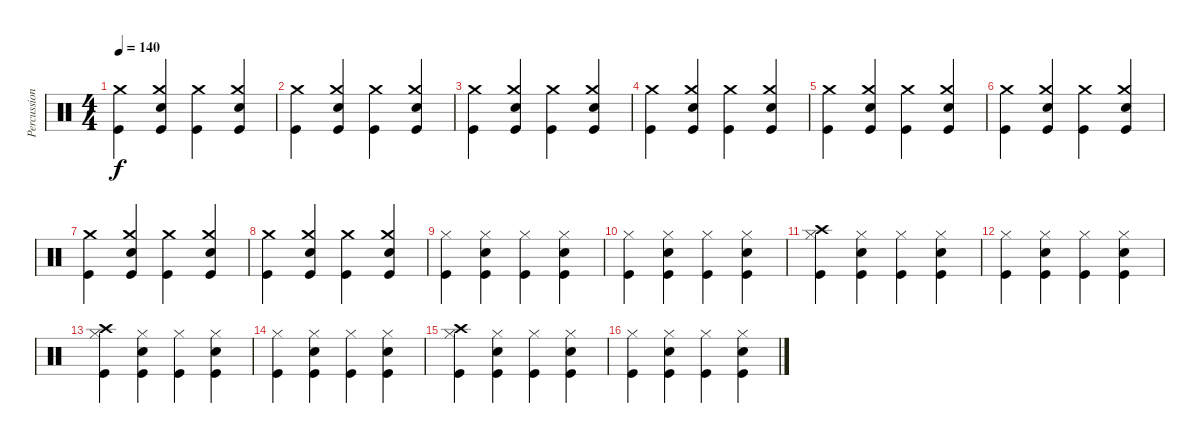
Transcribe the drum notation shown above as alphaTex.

\track ("Percussion" "Percussion") {instrument percussion}
\staff {score}
\articulation defaults
\ts (4 4)
\tempo 140
\clef neutral
\ks c
("Kick (hit)" "Crash medium (hit)").4{dy f} ("Kick (hit)" "Electric Snare (hit)" "Crash medium (hit)").4 ("Kick (hit)" "Crash medium (hit)").4 ("Kick (hit)" "Electric Snare (hit)" "Crash medium (hit)").4 |
("Kick (hit)" "Crash medium (hit)").4 ("Kick (hit)" "Electric Snare (hit)" "Crash medium (hit)").4 ("Kick (hit)" "Crash medium (hit)").4 ("Kick (hit)" "Electric Snare (hit)" "Crash medium (hit)").4 |
("Kick (hit)" "Crash medium (hit)").4 ("Kick (hit)" "Electric Snare (hit)" "Crash medium (hit)").4 ("Kick (hit)" "Crash medium (hit)").4 ("Kick (hit)" "Electric Snare (hit)" "Crash medium (hit)").4 |
("Kick (hit)" "Crash medium (hit)").4 ("Kick (hit)" "Electric Snare (hit)" "Crash medium (hit)").4 ("Kick (hit)" "Crash medium (hit)").4 ("Kick (hit)" "Electric Snare (hit)" "Crash medium (hit)").4 |
("Kick (hit)" "Crash medium (hit)").4 ("Kick (hit)" "Electric Snare (hit)" "Crash medium (hit)").4 ("Kick (hit)" "Crash medium (hit)").4 ("Kick (hit)" "Electric Snare (hit)" "Crash medium (hit)").4 |
("Kick (hit)" "Crash medium (hit)").4 ("Kick (hit)" "Electric Snare (hit)" "Crash medium (hit)").4 ("Kick (hit)" "Crash medium (hit)").4 ("Kick (hit)" "Electric Snare (hit)" "Crash medium (hit)").4 |
("Kick (hit)" "Crash medium (hit)").4 ("Kick (hit)" "Electric Snare (hit)" "Crash medium (hit)").4 ("Kick (hit)" "Crash medium (hit)").4 ("Kick (hit)" "Electric Snare (hit)" "Crash medium (hit)").4 |
("Kick (hit)" "Crash medium (hit)").4 ("Kick (hit)" "Electric Snare (hit)" "Crash medium (hit)").4 ("Kick (hit)" "Crash medium (hit)").4 ("Kick (hit)" "Electric Snare (hit)" "Crash medium (hit)").4 |
("Kick (hit)" "Hi-Hat (closed)").4 ("Kick (hit)" "Electric Snare (hit)" "Hi-Hat (closed)").4 ("Kick (hit)" "Hi-Hat (closed)").4 ("Kick (hit)" "Electric Snare (hit)" "Hi-Hat (closed)").4 |
("Kick (hit)" "Hi-Hat (closed)").4 ("Kick (hit)" "Electric Snare (hit)" "Hi-Hat (closed)").4 ("Kick (hit)" "Hi-Hat (closed)").4 ("Kick (hit)" "Electric Snare (hit)" "Hi-Hat (closed)").4 |
("Crash high (hit)" "Kick (hit)" "Hi-Hat (closed)").4 ("Kick (hit)" "Electric Snare (hit)" "Hi-Hat (closed)").4 ("Kick (hit)" "Hi-Hat (closed)").4 ("Kick (hit)" "Electric Snare (hit)" "Hi-Hat (closed)").4 |
("Kick (hit)" "Hi-Hat (closed)").4 ("Kick (hit)" "Electric Snare (hit)" "Hi-Hat (closed)").4 ("Kick (hit)" "Hi-Hat (closed)").4 ("Kick (hit)" "Electric Snare (hit)" "Hi-Hat (closed)").4 |
("Crash high (hit)" "Kick (hit)" "Hi-Hat (closed)").4 ("Kick (hit)" "Electric Snare (hit)" "Hi-Hat (closed)").4 ("Kick (hit)" "Hi-Hat (closed)").4 ("Kick (hit)" "Electric Snare (hit)" "Hi-Hat (closed)").4 |
("Kick (hit)" "Hi-Hat (closed)").4 ("Kick (hit)" "Electric Snare (hit)" "Hi-Hat (closed)").4 ("Kick (hit)" "Hi-Hat (closed)").4 ("Kick (hit)" "Electric Snare (hit)" "Hi-Hat (closed)").4 |
("Kick (hit)" "Crash high (hit)" "Hi-Hat (closed)").4 ("Kick (hit)" "Electric Snare (hit)" "Hi-Hat (closed)").4 ("Kick (hit)" "Hi-Hat (closed)").4 ("Kick (hit)" "Electric Snare (hit)" "Hi-Hat (closed)").4 |
("Kick (hit)" "Hi-Hat (closed)").4 ("Kick (hit)" "Electric Snare (hit)" "Hi-Hat (closed)").4 ("Kick (hit)" "Hi-Hat (closed)").4 ("Kick (hit)" "Electric Snare (hit)" "Hi-Hat (closed)").4
